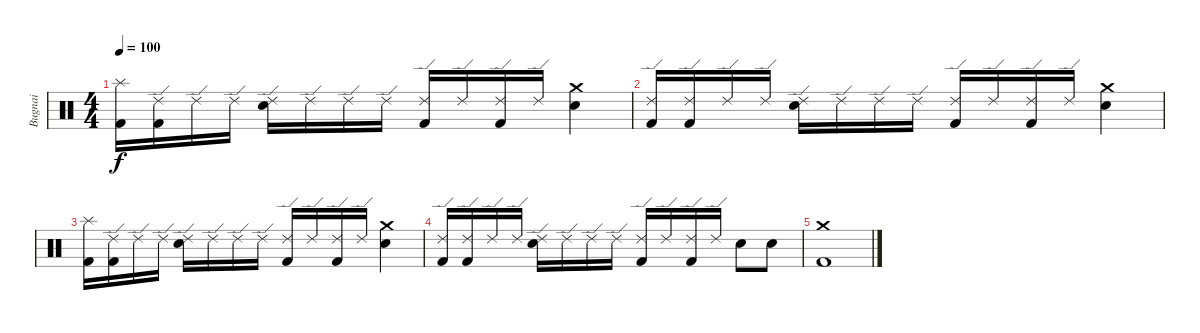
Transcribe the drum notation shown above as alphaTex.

\track ("Bugnai" "Bugnai") {instrument percussion}
\staff {score}
\articulation defaults
\ts (4 4)
\tempo 100
\clef neutral
\ks c
("Splash (hit)" "Kick (hit) 2").16{dy f} ("Ride (edge) 2" "Kick (hit) 2").16 "Ride (edge) 2".16 "Ride (edge) 2".16 ("Ride (edge) 2" "Electric Snare (hit)").16 "Ride (edge) 2".16 "Ride (edge) 2".16 "Ride (edge) 2".16 ("Ride (edge) 2" "Kick (hit) 2").16 "Ride (edge) 2".16 ("Ride (edge) 2" "Kick (hit) 2").16 "Ride (edge) 2".16 ("Crash medium (hit)" "Electric Snare (hit)").4 |
("Ride (edge) 2" "Kick (hit) 2").16 ("Ride (edge) 2" "Kick (hit) 2").16 "Ride (edge) 2".16 "Ride (edge) 2".16 ("Ride (edge) 2" "Electric Snare (hit)").16 "Ride (edge) 2".16 "Ride (edge) 2".16 "Ride (edge) 2".16 ("Ride (edge) 2" "Kick (hit) 2").16 "Ride (edge) 2".16 ("Ride (edge) 2" "Kick (hit) 2").16 "Ride (edge) 2".16 ("Crash medium (hit)" "Electric Snare (hit)").4 |
("Splash (hit)" "Kick (hit) 2").16 ("Ride (edge) 2" "Kick (hit) 2").16 "Ride (edge) 2".16 "Ride (edge) 2".16 ("Ride (edge) 2" "Electric Snare (hit)").16 "Ride (edge) 2".16 "Ride (edge) 2".16 "Ride (edge) 2".16 ("Ride (edge) 2" "Kick (hit) 2").16 "Ride (edge) 2".16 ("Ride (edge) 2" "Kick (hit) 2").16 "Ride (edge) 2".16 ("Crash medium (hit)" "Electric Snare (hit)").4 |
("Ride (edge) 2" "Kick (hit) 2").16 ("Ride (edge) 2" "Kick (hit) 2").16 "Ride (edge) 2".16 "Ride (edge) 2".16 ("Ride (edge) 2" "Electric Snare (hit)").16 "Ride (edge) 2".16 "Ride (edge) 2".16 "Ride (edge) 2".16 ("Ride (edge) 2" "Kick (hit) 2").16 "Ride (edge) 2".16 ("Ride (edge) 2" "Kick (hit) 2").16 "Ride (edge) 2".16 "Electric Snare (hit)".8 "Electric Snare (hit)".8 |
("Crash medium (hit)" "Kick (hit) 2").1
